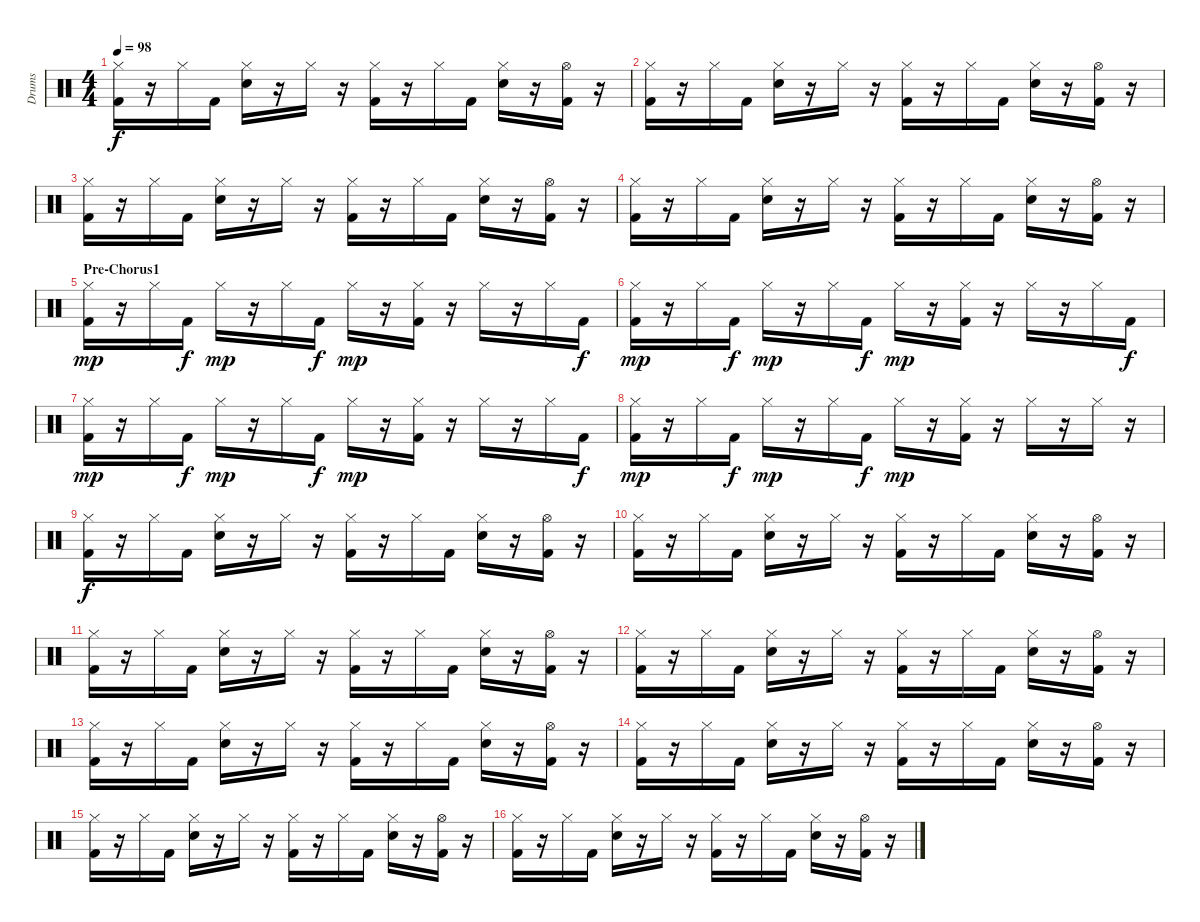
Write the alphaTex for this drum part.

\track ("Drums" "Drums") {instrument percussion}
\staff {score}
\articulation defaults
\ts (4 4)
\tempo 98
\clef neutral
\ks c
("Hi-Hat (closed)" "Kick (hit) 2").16{dy f} r.16 "Hi-Hat (closed)".16 "Kick (hit) 2".16 ("Hi-Hat (closed)" "Snare (hit) 2").16 r.16 "Hi-Hat (closed)".16 r.16 ("Hi-Hat (closed)" "Kick (hit) 2").16 r.16 "Hi-Hat (closed)".16 "Kick (hit) 2".16 ("Hi-Hat (closed)" "Snare (hit) 2").16 r.16 ("Hi-Hat (open)" "Kick (hit) 2").16 r.16 |
("Hi-Hat (closed)" "Kick (hit) 2").16 r.16 "Hi-Hat (closed)".16 "Kick (hit) 2".16 ("Hi-Hat (closed)" "Snare (hit) 2").16 r.16 "Hi-Hat (closed)".16 r.16 ("Hi-Hat (closed)" "Kick (hit) 2").16 r.16 "Hi-Hat (closed)".16 "Kick (hit) 2".16 ("Hi-Hat (closed)" "Snare (hit) 2").16 r.16 ("Hi-Hat (open)" "Kick (hit) 2").16 r.16 |
("Hi-Hat (closed)" "Kick (hit) 2").16 r.16 "Hi-Hat (closed)".16 "Kick (hit) 2".16 ("Hi-Hat (closed)" "Snare (hit) 2").16 r.16 "Hi-Hat (closed)".16 r.16 ("Hi-Hat (closed)" "Kick (hit) 2").16 r.16 "Hi-Hat (closed)".16 "Kick (hit) 2".16 ("Hi-Hat (closed)" "Snare (hit) 2").16 r.16 ("Hi-Hat (open)" "Kick (hit) 2").16 r.16 |
("Hi-Hat (closed)" "Kick (hit) 2").16 r.16 "Hi-Hat (closed)".16 "Kick (hit) 2".16 ("Hi-Hat (closed)" "Snare (hit) 2").16 r.16 "Hi-Hat (closed)".16 r.16 ("Hi-Hat (closed)" "Kick (hit) 2").16 r.16 "Hi-Hat (closed)".16 "Kick (hit) 2".16 ("Hi-Hat (closed)" "Snare (hit) 2").16 r.16 ("Hi-Hat (open)" "Kick (hit) 2").16 r.16 |
\section ("" "Pre-Chorus1")
("Hi-Hat (closed)" "Kick (hit) 2").16{dy mp} r.16 "Hi-Hat (closed)".16 "Kick (hit) 2".16{dy f} "Hi-Hat (closed)".16{dy mp} r.16 "Hi-Hat (closed)".16 "Kick (hit) 2".16{dy f} "Hi-Hat (closed)".16{dy mp} r.16 ("Hi-Hat (closed)" "Kick (hit) 2").16 r.16 "Hi-Hat (closed)".16 r.16 "Hi-Hat (closed)".16 "Kick (hit) 2".16{dy f} |
("Hi-Hat (closed)" "Kick (hit) 2").16{dy mp} r.16 "Hi-Hat (closed)".16 "Kick (hit) 2".16{dy f} "Hi-Hat (closed)".16{dy mp} r.16 "Hi-Hat (closed)".16 "Kick (hit) 2".16{dy f} "Hi-Hat (closed)".16{dy mp} r.16 ("Hi-Hat (closed)" "Kick (hit) 2").16 r.16 "Hi-Hat (closed)".16 r.16 "Hi-Hat (closed)".16 "Kick (hit) 2".16{dy f} |
("Hi-Hat (closed)" "Kick (hit) 2").16{dy mp} r.16 "Hi-Hat (closed)".16 "Kick (hit) 2".16{dy f} "Hi-Hat (closed)".16{dy mp} r.16 "Hi-Hat (closed)".16 "Kick (hit) 2".16{dy f} "Hi-Hat (closed)".16{dy mp} r.16 ("Hi-Hat (closed)" "Kick (hit) 2").16 r.16 "Hi-Hat (closed)".16 r.16 "Hi-Hat (closed)".16 "Kick (hit) 2".16{dy f} |
("Hi-Hat (closed)" "Kick (hit) 2").16{dy mp} r.16 "Hi-Hat (closed)".16 "Kick (hit) 2".16{dy f} "Hi-Hat (closed)".16{dy mp} r.16 "Hi-Hat (closed)".16 "Kick (hit) 2".16{dy f} "Hi-Hat (closed)".16{dy mp} r.16 ("Hi-Hat (closed)" "Kick (hit) 2").16 r.16 "Hi-Hat (closed)".16 r.16 "Hi-Hat (closed)".16 r.16 |
("Hi-Hat (closed)" "Kick (hit) 2").16{dy f} r.16 "Hi-Hat (closed)".16 "Kick (hit) 2".16 ("Hi-Hat (closed)" "Snare (hit) 2").16 r.16 "Hi-Hat (closed)".16 r.16 ("Hi-Hat (closed)" "Kick (hit) 2").16 r.16 "Hi-Hat (closed)".16 "Kick (hit) 2".16 ("Hi-Hat (closed)" "Snare (hit) 2").16 r.16 ("Hi-Hat (open)" "Kick (hit) 2").16 r.16 |
("Hi-Hat (closed)" "Kick (hit) 2").16 r.16 "Hi-Hat (closed)".16 "Kick (hit) 2".16 ("Hi-Hat (closed)" "Snare (hit) 2").16 r.16 "Hi-Hat (closed)".16 r.16 ("Hi-Hat (closed)" "Kick (hit) 2").16 r.16 "Hi-Hat (closed)".16 "Kick (hit) 2".16 ("Hi-Hat (closed)" "Snare (hit) 2").16 r.16 ("Hi-Hat (open)" "Kick (hit) 2").16 r.16 |
("Hi-Hat (closed)" "Kick (hit) 2").16 r.16 "Hi-Hat (closed)".16 "Kick (hit) 2".16 ("Hi-Hat (closed)" "Snare (hit) 2").16 r.16 "Hi-Hat (closed)".16 r.16 ("Hi-Hat (closed)" "Kick (hit) 2").16 r.16 "Hi-Hat (closed)".16 "Kick (hit) 2".16 ("Hi-Hat (closed)" "Snare (hit) 2").16 r.16 ("Hi-Hat (open)" "Kick (hit) 2").16 r.16 |
("Hi-Hat (closed)" "Kick (hit) 2").16 r.16 "Hi-Hat (closed)".16 "Kick (hit) 2".16 ("Hi-Hat (closed)" "Snare (hit) 2").16 r.16 "Hi-Hat (closed)".16 r.16 ("Hi-Hat (closed)" "Kick (hit) 2").16 r.16 "Hi-Hat (closed)".16 "Kick (hit) 2".16 ("Hi-Hat (closed)" "Snare (hit) 2").16 r.16 ("Hi-Hat (open)" "Kick (hit) 2").16 r.16 |
("Hi-Hat (closed)" "Kick (hit) 2").16 r.16 "Hi-Hat (closed)".16 "Kick (hit) 2".16 ("Hi-Hat (closed)" "Snare (hit) 2").16 r.16 "Hi-Hat (closed)".16 r.16 ("Hi-Hat (closed)" "Kick (hit) 2").16 r.16 "Hi-Hat (closed)".16 "Kick (hit) 2".16 ("Hi-Hat (closed)" "Snare (hit) 2").16 r.16 ("Hi-Hat (open)" "Kick (hit) 2").16 r.16 |
("Hi-Hat (closed)" "Kick (hit) 2").16 r.16 "Hi-Hat (closed)".16 "Kick (hit) 2".16 ("Hi-Hat (closed)" "Snare (hit) 2").16 r.16 "Hi-Hat (closed)".16 r.16 ("Hi-Hat (closed)" "Kick (hit) 2").16 r.16 "Hi-Hat (closed)".16 "Kick (hit) 2".16 ("Hi-Hat (closed)" "Snare (hit) 2").16 r.16 ("Hi-Hat (open)" "Kick (hit) 2").16 r.16 |
("Hi-Hat (closed)" "Kick (hit) 2").16 r.16 "Hi-Hat (closed)".16 "Kick (hit) 2".16 ("Hi-Hat (closed)" "Snare (hit) 2").16 r.16 "Hi-Hat (closed)".16 r.16 ("Hi-Hat (closed)" "Kick (hit) 2").16 r.16 "Hi-Hat (closed)".16 "Kick (hit) 2".16 ("Hi-Hat (closed)" "Snare (hit) 2").16 r.16 ("Hi-Hat (open)" "Kick (hit) 2").16 r.16 |
("Hi-Hat (closed)" "Kick (hit) 2").16 r.16 "Hi-Hat (closed)".16 "Kick (hit) 2".16 ("Hi-Hat (closed)" "Snare (hit) 2").16 r.16 "Hi-Hat (closed)".16 r.16 ("Hi-Hat (closed)" "Kick (hit) 2").16 r.16 "Hi-Hat (closed)".16 "Kick (hit) 2".16 ("Hi-Hat (closed)" "Snare (hit) 2").16 r.16 ("Hi-Hat (open)" "Kick (hit) 2").16 r.16
